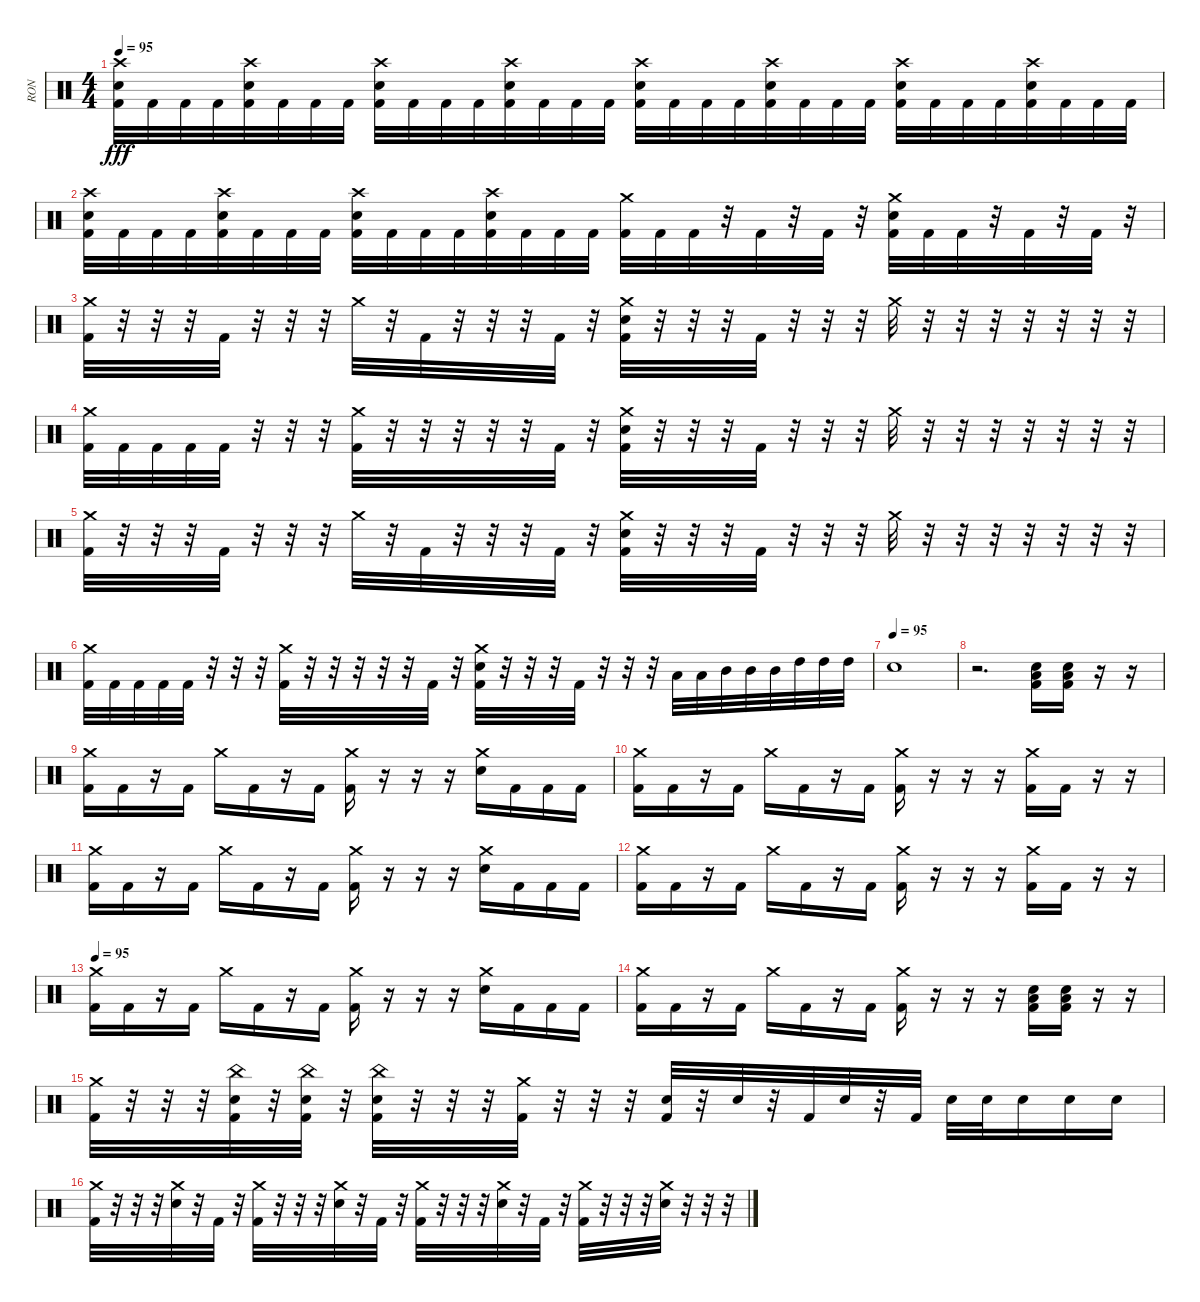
\track ("RON" "RON") {instrument percussion}
\staff {score}
\articulation defaults
\ts (4 4)
\tempo 95
\clef neutral
\ks c
("Crash high (hit)" "Electric Snare (hit)" "Kick (hit) 2").32{dy fff} "Kick (hit) 2".32 "Kick (hit) 2".32 "Kick (hit) 2".32 ("Crash high (hit)" "Electric Snare (hit)" "Kick (hit) 2").32 "Kick (hit) 2".32 "Kick (hit) 2".32 "Kick (hit) 2".32 ("Crash high (hit)" "Electric Snare (hit)" "Kick (hit) 2").32 "Kick (hit) 2".32 "Kick (hit) 2".32 "Kick (hit) 2".32 ("Crash high (hit)" "Electric Snare (hit)" "Kick (hit) 2").32 "Kick (hit) 2".32 "Kick (hit) 2".32 "Kick (hit) 2".32 ("Crash high (hit)" "Electric Snare (hit)" "Kick (hit) 2").32 "Kick (hit) 2".32 "Kick (hit) 2".32 "Kick (hit) 2".32 ("Crash high (hit)" "Electric Snare (hit)" "Kick (hit) 2").32 "Kick (hit) 2".32 "Kick (hit) 2".32 "Kick (hit) 2".32 ("Crash high (hit)" "Electric Snare (hit)" "Kick (hit) 2").32 "Kick (hit) 2".32 "Kick (hit) 2".32 "Kick (hit) 2".32 ("Crash high (hit)" "Electric Snare (hit)" "Kick (hit) 2").32 "Kick (hit) 2".32 "Kick (hit) 2".32 "Kick (hit) 2".32 |
("Crash high (hit)" "Electric Snare (hit)" "Kick (hit) 2").32 "Kick (hit) 2".32 "Kick (hit) 2".32 "Kick (hit) 2".32 ("Crash high (hit)" "Electric Snare (hit)" "Kick (hit) 2").32 "Kick (hit) 2".32 "Kick (hit) 2".32 "Kick (hit) 2".32 ("Crash high (hit)" "Electric Snare (hit)" "Kick (hit) 2").32 "Kick (hit) 2".32 "Kick (hit) 2".32 "Kick (hit) 2".32 ("Crash high (hit)" "Electric Snare (hit)" "Kick (hit) 2").32 "Kick (hit) 2".32 "Kick (hit) 2".32 "Kick (hit) 2".32 ("Crash medium (hit)" "Kick (hit) 2").32 "Kick (hit) 2".32 "Kick (hit) 2".32 r.32 "Kick (hit) 2".32 r.32 "Kick (hit) 2".32 r.32 ("Crash medium (hit)" "Electric Snare (hit)" "Kick (hit) 2").32 "Kick (hit) 2".32 "Kick (hit) 2".32 r.32 "Kick (hit) 2".32 r.32 "Kick (hit) 2".32 r.32 |
("Crash medium (hit)" "Kick (hit) 2").32 r.32 r.32 r.32 "Kick (hit) 2".32 r.32 r.32 r.32 "Crash medium (hit)".32 r.32 "Kick (hit) 2".32 r.32 r.32 r.32 "Kick (hit) 2".32 r.32 ("Crash medium (hit)" "Electric Snare (hit)" "Kick (hit) 2").32 r.32 r.32 r.32 "Kick (hit) 2".32 r.32 r.32 r.32 "Crash medium (hit)".32 r.32 r.32 r.32 r.32 r.32 r.32 r.32 |
("Crash medium (hit)" "Kick (hit) 2").32 "Kick (hit) 2".32 "Kick (hit) 2".32 "Kick (hit) 2".32 "Kick (hit) 2".32 r.32 r.32 r.32 ("Crash medium (hit)" "Kick (hit) 2").32 r.32 r.32 r.32 r.32 r.32 "Kick (hit) 2".32 r.32 ("Crash medium (hit)" "Electric Snare (hit)" "Kick (hit) 2").32 r.32 r.32 r.32 "Kick (hit) 2".32 r.32 r.32 r.32 "Crash medium (hit)".32 r.32 r.32 r.32 r.32 r.32 r.32 r.32 |
("Crash medium (hit)" "Kick (hit) 2").32 r.32 r.32 r.32 "Kick (hit) 2".32 r.32 r.32 r.32 "Crash medium (hit)".32 r.32 "Kick (hit) 2".32 r.32 r.32 r.32 "Kick (hit) 2".32 r.32 ("Crash medium (hit)" "Electric Snare (hit)" "Kick (hit) 2").32 r.32 r.32 r.32 "Kick (hit) 2".32 r.32 r.32 r.32 "Crash medium (hit)".32 r.32 r.32 r.32 r.32 r.32 r.32 r.32 |
("Crash medium (hit)" "Kick (hit) 2").32 "Kick (hit) 2".32 "Kick (hit) 2".32 "Kick (hit) 2".32 "Kick (hit) 2".32 r.32 r.32 r.32 ("Crash medium (hit)" "Kick (hit) 2").32 r.32 r.32 r.32 r.32 r.32 "Kick (hit) 2".32 r.32 ("Crash medium (hit)" "Electric Snare (hit)" "Kick (hit) 2").32 r.32 r.32 r.32 "Kick (hit) 2".32 r.32 r.32 r.32 "Low Tom (hit)".32 "Low Tom (hit)".32 "Mid Tom (hit)".32 "Mid Tom (hit)".32 "Mid Tom (hit)".32 "High Tom (hit)".32 "High Tom (hit)".32 "High Tom (hit)".32 |
\tempo (95)
"Electric Snare (hit)".1 |
r.2{d} ("Low Floor Tom (hit)" "Electric Snare (hit)" "Kick (hit) 2").16 ("Low Floor Tom (hit)" "Electric Snare (hit)" "Kick (hit) 2").16 r.16 r.16 |
("Crash medium (hit)" "Kick (hit) 2").16 "Kick (hit) 2".16 r.16 "Kick (hit) 2".16 "Crash medium (hit)".16 "Kick (hit) 2".16 r.16 "Kick (hit) 2".16 ("Crash medium (hit)" "Kick (hit) 2").16 r.16 r.16 r.16 ("Crash medium (hit)" "Electric Snare (hit)").16 "Kick (hit) 2".16 "Kick (hit) 2".16 "Kick (hit) 2".16 |
("Crash medium (hit)" "Kick (hit) 2").16 "Kick (hit) 2".16 r.16 "Kick (hit) 2".16 "Crash medium (hit)".16 "Kick (hit) 2".16 r.16 "Kick (hit) 2".16 ("Crash medium (hit)" "Kick (hit) 2").16 r.16 r.16 r.16 ("Crash medium (hit)" "Kick (hit) 2").16 "Kick (hit) 2".16 r.16 r.16 |
("Crash medium (hit)" "Kick (hit) 2").16 "Kick (hit) 2".16 r.16 "Kick (hit) 2".16 "Crash medium (hit)".16 "Kick (hit) 2".16 r.16 "Kick (hit) 2".16 ("Crash medium (hit)" "Kick (hit) 2").16 r.16 r.16 r.16 ("Crash medium (hit)" "Electric Snare (hit)").16 "Kick (hit) 2".16 "Kick (hit) 2".16 "Kick (hit) 2".16 |
("Crash medium (hit)" "Kick (hit) 2").16 "Kick (hit) 2".16 r.16 "Kick (hit) 2".16 "Crash medium (hit)".16 "Kick (hit) 2".16 r.16 "Kick (hit) 2".16 ("Crash medium (hit)" "Kick (hit) 2").16 r.16 r.16 r.16 ("Crash medium (hit)" "Kick (hit) 2").16 "Kick (hit) 2".16 r.16 r.16 |
\tempo 95
("Crash medium (hit)" "Kick (hit) 2").16 "Kick (hit) 2".16 r.16 "Kick (hit) 2".16 "Crash medium (hit)".16 "Kick (hit) 2".16 r.16 "Kick (hit) 2".16 ("Crash medium (hit)" "Kick (hit) 2").16 r.16 r.16 r.16 ("Crash medium (hit)" "Electric Snare (hit)").16 "Kick (hit) 2".16 "Kick (hit) 2".16 "Kick (hit) 2".16 |
("Crash medium (hit)" "Kick (hit) 2").16 "Kick (hit) 2".16 r.16 "Kick (hit) 2".16 "Crash medium (hit)".16 "Kick (hit) 2".16 r.16 "Kick (hit) 2".16 ("Crash medium (hit)" "Kick (hit) 2").16 r.16 r.16 r.16 ("Low Floor Tom (hit)" "Electric Snare (hit)" "Kick (hit) 2").16 ("Low Floor Tom (hit)" "Electric Snare (hit)" "Kick (hit) 2").16 r.16 r.16 |
("Crash medium (hit)" "Kick (hit) 2").32 r.32 r.32 r.32 ("China (hit)" "Electric Snare (hit)" "Kick (hit) 2").32 r.32 ("China (hit)" "Electric Snare (hit)" "Kick (hit) 2").32 r.32 ("China (hit)" "Electric Snare (hit)" "Kick (hit) 2").32 r.32 r.32 r.32 ("Crash medium (hit)" "Kick (hit) 2").32 r.32 r.32 r.32 ("Electric Snare (hit)" "Kick (hit) 2").32 r.32 "Electric Snare (hit)".32 r.32 "Kick (hit) 2".32 "Electric Snare (hit)".32 r.32 "Kick (hit) 2".32 "Electric Snare (hit)".32 "Electric Snare (hit)".32 "Electric Snare (hit)".16 "Electric Snare (hit)".16 "Electric Snare (hit)".16 |
("Crash medium (hit)" "Kick (hit) 2").32 r.32 r.32 r.32 ("Crash medium (hit)" "Electric Snare (hit)").32 r.32 "Kick (hit) 2".32 r.32 ("Crash medium (hit)" "Kick (hit) 2").32 r.32 r.32 r.32 ("Crash medium (hit)" "Electric Snare (hit)").32 r.32 "Kick (hit) 2".32 r.32 ("Crash medium (hit)" "Kick (hit) 2").32 r.32 r.32 r.32 ("Crash medium (hit)" "Electric Snare (hit)").32 r.32 "Kick (hit) 2".32 r.32 ("Crash medium (hit)" "Kick (hit) 2").32 r.32 r.32 r.32 ("Crash medium (hit)" "Electric Snare (hit)").32 r.32 r.32 r.32
